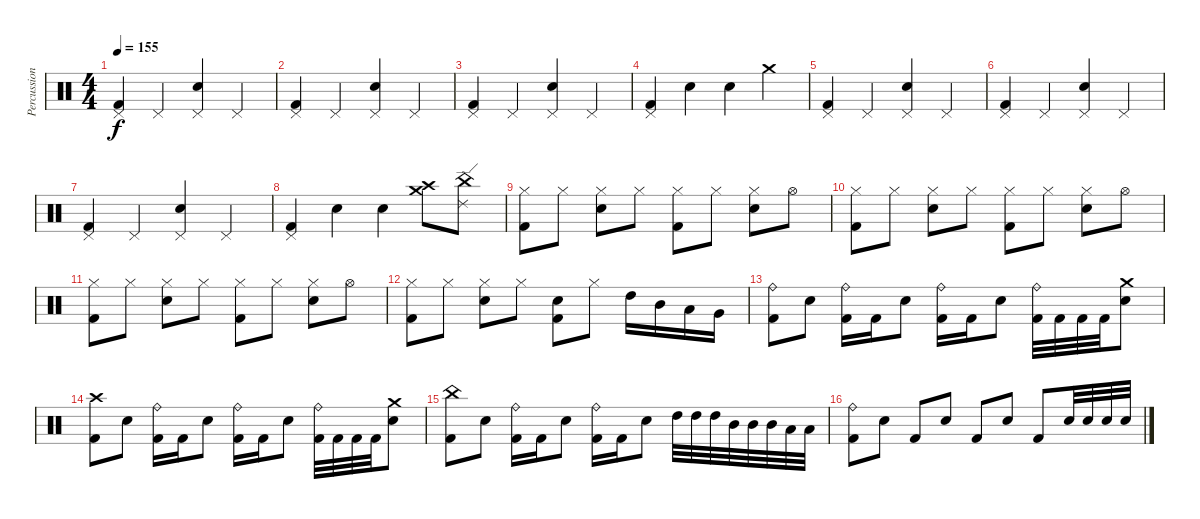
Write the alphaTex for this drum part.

\track ("Percussions" "Percussion") {instrument percussion}
\staff {score}
\articulation defaults
\ts (4 4)
\tempo 155
\clef neutral
\ks c
("Pedal Hi-Hat (hit)" "Kick (hit) 2").4{dy f} "Pedal Hi-Hat (hit)".4 ("Pedal Hi-Hat (hit)" "Electric Snare (hit)").4 "Pedal Hi-Hat (hit)".4 |
("Pedal Hi-Hat (hit)" "Kick (hit) 2").4 "Pedal Hi-Hat (hit)".4 ("Pedal Hi-Hat (hit)" "Electric Snare (hit)").4 "Pedal Hi-Hat (hit)".4 |
("Pedal Hi-Hat (hit)" "Kick (hit) 2").4 "Pedal Hi-Hat (hit)".4 ("Pedal Hi-Hat (hit)" "Electric Snare (hit)").4 "Pedal Hi-Hat (hit)".4 |
("Pedal Hi-Hat (hit)" "Kick (hit) 2").4 "Electric Snare (hit)".4 "Electric Snare (hit)".4 "Crash medium (hit)".4 |
("Pedal Hi-Hat (hit)" "Kick (hit) 2").4 "Pedal Hi-Hat (hit)".4 ("Pedal Hi-Hat (hit)" "Electric Snare (hit)").4 "Pedal Hi-Hat (hit)".4 |
("Pedal Hi-Hat (hit)" "Kick (hit) 2").4 "Pedal Hi-Hat (hit)".4 ("Pedal Hi-Hat (hit)" "Electric Snare (hit)").4 "Pedal Hi-Hat (hit)".4 |
("Pedal Hi-Hat (hit)" "Kick (hit) 2").4 "Pedal Hi-Hat (hit)".4 ("Pedal Hi-Hat (hit)" "Electric Snare (hit)").4 "Pedal Hi-Hat (hit)".4 |
("Pedal Hi-Hat (hit)" "Kick (hit) 2").4 "Electric Snare (hit)".4 "Electric Snare (hit)".4 ("Crash medium (hit)" "Crash high (hit)").8 ("China (hit)" "Ride (edge) 2").8 |
("Hi-Hat (closed)" "Kick (hit) 2").8 "Hi-Hat (closed)".8 ("Hi-Hat (closed)" "Electric Snare (hit)").8 "Hi-Hat (closed)".8 ("Hi-Hat (closed)" "Kick (hit) 2").8 "Hi-Hat (closed)".8 ("Hi-Hat (closed)" "Electric Snare (hit)").8 "Hi-Hat (open)".8 |
("Hi-Hat (closed)" "Kick (hit) 2").8 "Hi-Hat (closed)".8 ("Hi-Hat (closed)" "Electric Snare (hit)").8 "Hi-Hat (closed)".8 ("Hi-Hat (closed)" "Kick (hit) 2").8 "Hi-Hat (closed)".8 ("Hi-Hat (closed)" "Electric Snare (hit)").8 "Hi-Hat (open)".8 |
("Hi-Hat (closed)" "Kick (hit) 2").8 "Hi-Hat (closed)".8 ("Hi-Hat (closed)" "Electric Snare (hit)").8 "Hi-Hat (closed)".8 ("Hi-Hat (closed)" "Kick (hit) 2").8 "Hi-Hat (closed)".8 ("Hi-Hat (closed)" "Electric Snare (hit)").8 "Hi-Hat (open)".8 |
("Hi-Hat (closed)" "Kick (hit) 2").8 "Hi-Hat (closed)".8 ("Hi-Hat (closed)" "Electric Snare (hit)").8 "Hi-Hat (closed)".8 ("Electric Snare (hit)" "Kick (hit) 2").8 "Hi-Hat (closed)".8 "High Tom (hit)".16 "Mid Tom (hit)".16 "Low Tom (hit)".16 "Very Low Tom (hit)".16 |
("Ride (bell)" "Kick (hit) 2").8 "Electric Snare (hit)".8 ("Ride (bell)" "Kick (hit) 2").16 "Kick (hit) 2".16 "Electric Snare (hit)".8 ("Ride (bell)" "Kick (hit) 2").16 "Kick (hit) 2".16 "Electric Snare (hit)".8 ("Ride (bell)" "Kick (hit) 2").32 "Kick (hit) 2".32 "Kick (hit) 2".32 "Kick (hit) 2".32 ("Crash medium (hit)" "Electric Snare (hit)").8 |
("Crash high (hit)" "Kick (hit) 2").8 "Electric Snare (hit)".8 ("Ride (bell)" "Kick (hit) 2").16 "Kick (hit) 2".16 "Electric Snare (hit)".8 ("Ride (bell)" "Kick (hit) 2").16 "Kick (hit) 2".16 "Electric Snare (hit)".8 ("Ride (bell)" "Kick (hit) 2").32 "Kick (hit) 2".32 "Kick (hit) 2".32 "Kick (hit) 2".32 ("Crash medium (hit)" "Electric Snare (hit)").8 |
("China (hit)" "Kick (hit) 2").8 "Electric Snare (hit)".8 ("Ride (bell)" "Kick (hit) 2").16 "Kick (hit) 2".16 "Electric Snare (hit)".8 ("Ride (bell)" "Kick (hit) 2").16 "Kick (hit) 2".16 "Electric Snare (hit)".8 "High Tom (hit)".32 "High Tom (hit)".32 "High Tom (hit)".32 "Mid Tom (hit)".32 "Mid Tom (hit)".32 "Mid Tom (hit)".32 "Low Tom (hit)".32 "Low Tom (hit)".32 |
("Ride (bell)" "Kick (hit) 2").8 "Electric Snare (hit)".8 "Kick (hit) 2".8 "Electric Snare (hit)".8 "Kick (hit) 2".8 "Electric Snare (hit)".8 "Kick (hit) 2".8 "Electric Snare (hit)".32 "Electric Snare (hit)".32 "Electric Snare (hit)".32 "Electric Snare (hit)".32
